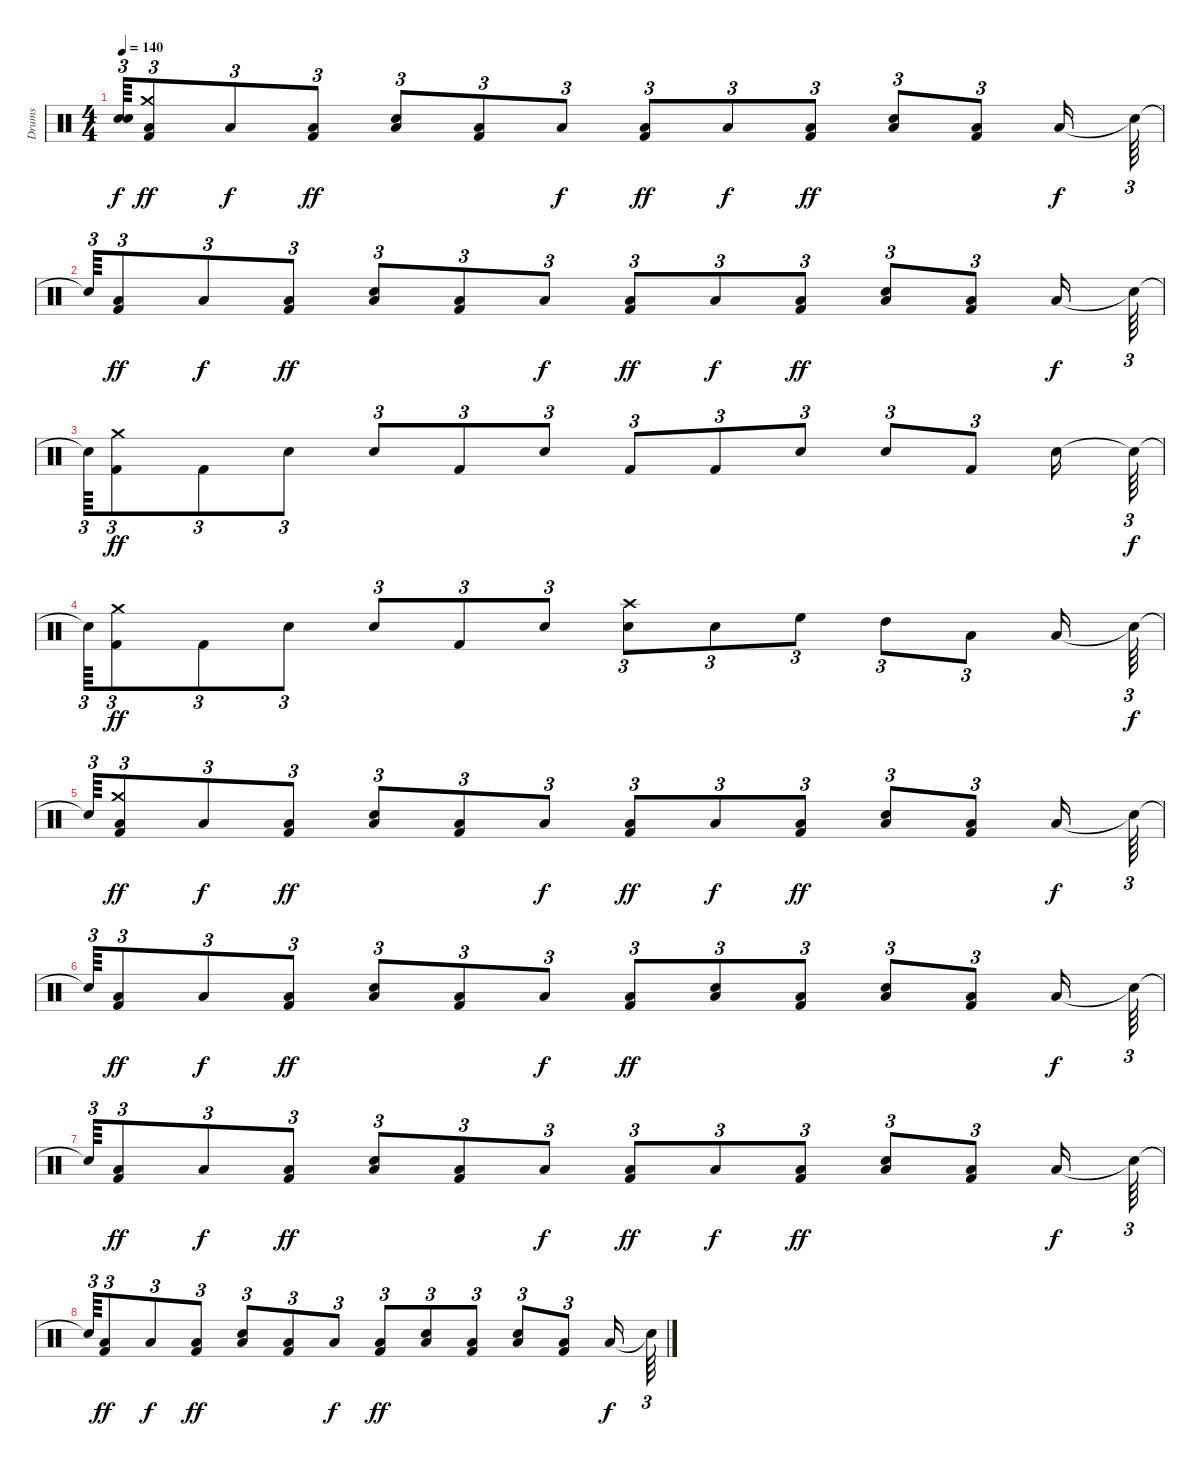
\track ("Drums" "Drums") {instrument percussion}
\staff {score}
\articulation defaults
\ts (4 4)
\tempo 140
\clef neutral
\ks c
("Snare (hit)"{t} "Snare (hit)"{t}).64{tu (3 2) dy f} ("Kick (hit) 2" "Crash medium (hit)" "Low Floor Tom (hit)").8{tu (3 2) dy ff} "Low Floor Tom (hit)".8{tu (3 2) dy f} ("Kick (hit) 2" "Low Floor Tom (hit)").8{tu (3 2) dy ff} ("Snare (hit) 2" "Low Floor Tom (hit)").8{tu (3 2)} ("Kick (hit) 2" "Low Floor Tom (hit)").8{tu (3 2)} "Low Floor Tom (hit)".8{tu (3 2) dy f} ("Kick (hit) 2" "Low Floor Tom (hit)").8{tu (3 2) dy ff} "Low Floor Tom (hit)".8{tu (3 2) dy f} ("Kick (hit) 2" "Low Floor Tom (hit)").8{tu (3 2) dy ff} ("Snare (hit) 2" "Low Floor Tom (hit)").8{tu (3 2)} ("Kick (hit) 2" "Low Floor Tom (hit)").8{tu (3 2)} "Low Floor Tom (hit)".16{dy f} "Snare (hit)"{t}.64{tu (3 2)} |
"Snare (hit)"{t}.64{tu (3 2)} ("Kick (hit) 2" "Low Floor Tom (hit)").8{tu (3 2) dy ff} "Low Floor Tom (hit)".8{tu (3 2) dy f} ("Kick (hit) 2" "Low Floor Tom (hit)").8{tu (3 2) dy ff} ("Snare (hit) 2" "Low Floor Tom (hit)").8{tu (3 2)} ("Kick (hit) 2" "Low Floor Tom (hit)").8{tu (3 2)} "Low Floor Tom (hit)".8{tu (3 2) dy f} ("Kick (hit) 2" "Low Floor Tom (hit)").8{tu (3 2) dy ff} "Low Floor Tom (hit)".8{tu (3 2) dy f} ("Kick (hit) 2" "Low Floor Tom (hit)").8{tu (3 2) dy ff} ("Snare (hit) 2" "Low Floor Tom (hit)").8{tu (3 2)} ("Kick (hit) 2" "Low Floor Tom (hit)").8{tu (3 2)} "Low Floor Tom (hit)".16{dy f} "Snare (hit)"{t}.64{tu (3 2)} |
"Snare (hit)"{t}.64{tu (3 2)} ("Kick (hit) 2" "Crash medium (hit)").8{tu (3 2) dy ff} "Kick (hit) 2".8{tu (3 2)} "Snare (hit) 2".8{tu (3 2)} "Snare (hit) 2".8{tu (3 2)} "Kick (hit) 2".8{tu (3 2)} "Snare (hit) 2".8{tu (3 2)} "Kick (hit) 2".8{tu (3 2)} "Kick (hit) 2".8{tu (3 2)} "Snare (hit) 2".8{tu (3 2)} "Snare (hit) 2".8{tu (3 2)} "Kick (hit) 2".8{tu (3 2)} "Snare (hit) 2".16 "Snare (hit)"{t}.64{tu (3 2) dy f} |
"Snare (hit)"{t}.64{tu (3 2)} ("Kick (hit) 2" "Crash medium (hit)").8{tu (3 2) dy ff} "Kick (hit) 2".8{tu (3 2)} "Snare (hit) 2".8{tu (3 2)} "Snare (hit) 2".8{tu (3 2)} "Kick (hit) 2".8{tu (3 2)} "Snare (hit) 2".8{tu (3 2)} ("Snare (hit) 2" "Crash high (hit)").8{tu (3 2)} "Snare (hit) 2".8{tu (3 2)} "High Floor Tom (hit)".8{tu (3 2)} "High Tom (hit)".8{tu (3 2)} "Low Tom (hit)".8{tu (3 2)} "Low Floor Tom (hit)".16 "Snare (hit)"{t}.64{tu (3 2) dy f} |
"Snare (hit)"{t}.64{tu (3 2)} ("Kick (hit) 2" "Crash medium (hit)" "Low Floor Tom (hit)").8{tu (3 2) dy ff} "Low Floor Tom (hit)".8{tu (3 2) dy f} ("Kick (hit) 2" "Low Floor Tom (hit)").8{tu (3 2) dy ff} ("Snare (hit) 2" "Low Floor Tom (hit)").8{tu (3 2)} ("Kick (hit) 2" "Low Floor Tom (hit)").8{tu (3 2)} "Low Floor Tom (hit)".8{tu (3 2) dy f} ("Kick (hit) 2" "Low Floor Tom (hit)").8{tu (3 2) dy ff} "Low Floor Tom (hit)".8{tu (3 2) dy f} ("Kick (hit) 2" "Low Floor Tom (hit)").8{tu (3 2) dy ff} ("Snare (hit) 2" "Low Floor Tom (hit)").8{tu (3 2)} ("Kick (hit) 2" "Low Floor Tom (hit)").8{tu (3 2)} "Low Floor Tom (hit)".16{dy f} "Snare (hit)"{t}.64{tu (3 2)} |
"Snare (hit)"{t}.64{tu (3 2)} ("Kick (hit) 2" "Low Floor Tom (hit)").8{tu (3 2) dy ff} "Low Floor Tom (hit)".8{tu (3 2) dy f} ("Kick (hit) 2" "Low Floor Tom (hit)").8{tu (3 2) dy ff} ("Snare (hit) 2" "Low Floor Tom (hit)").8{tu (3 2)} ("Kick (hit) 2" "Low Floor Tom (hit)").8{tu (3 2)} "Low Floor Tom (hit)".8{tu (3 2) dy f} ("Kick (hit) 2" "Low Floor Tom (hit)").8{tu (3 2) dy ff} ("Snare (hit) 2" "Low Floor Tom (hit)").8{tu (3 2)} ("Kick (hit) 2" "Low Floor Tom (hit)").8{tu (3 2)} ("Snare (hit) 2" "Low Floor Tom (hit)").8{tu (3 2)} ("Kick (hit) 2" "Low Floor Tom (hit)").8{tu (3 2)} "Low Floor Tom (hit)".16{dy f} "Snare (hit)"{t}.64{tu (3 2)} |
"Snare (hit)"{t}.64{tu (3 2)} ("Kick (hit) 2" "Low Floor Tom (hit)").8{tu (3 2) dy ff} "Low Floor Tom (hit)".8{tu (3 2) dy f} ("Kick (hit) 2" "Low Floor Tom (hit)").8{tu (3 2) dy ff} ("Snare (hit) 2" "Low Floor Tom (hit)").8{tu (3 2)} ("Kick (hit) 2" "Low Floor Tom (hit)").8{tu (3 2)} "Low Floor Tom (hit)".8{tu (3 2) dy f} ("Kick (hit) 2" "Low Floor Tom (hit)").8{tu (3 2) dy ff} "Low Floor Tom (hit)".8{tu (3 2) dy f} ("Kick (hit) 2" "Low Floor Tom (hit)").8{tu (3 2) dy ff} ("Snare (hit) 2" "Low Floor Tom (hit)").8{tu (3 2)} ("Kick (hit) 2" "Low Floor Tom (hit)").8{tu (3 2)} "Low Floor Tom (hit)".16{dy f} "Snare (hit)"{t}.64{tu (3 2)} |
"Snare (hit)"{t}.64{tu (3 2)} ("Kick (hit) 2" "Low Floor Tom (hit)").8{tu (3 2) dy ff} "Low Floor Tom (hit)".8{tu (3 2) dy f} ("Kick (hit) 2" "Low Floor Tom (hit)").8{tu (3 2) dy ff} ("Snare (hit) 2" "Low Floor Tom (hit)").8{tu (3 2)} ("Kick (hit) 2" "Low Floor Tom (hit)").8{tu (3 2)} "Low Floor Tom (hit)".8{tu (3 2) dy f} ("Kick (hit) 2" "Low Floor Tom (hit)").8{tu (3 2) dy ff} ("Snare (hit) 2" "Low Floor Tom (hit)").8{tu (3 2)} ("Kick (hit) 2" "Low Floor Tom (hit)").8{tu (3 2)} ("Snare (hit) 2" "Low Floor Tom (hit)").8{tu (3 2)} ("Kick (hit) 2" "Low Floor Tom (hit)").8{tu (3 2)} "Low Floor Tom (hit)".16{dy f} "Snare (hit)"{t}.64{tu (3 2)}
